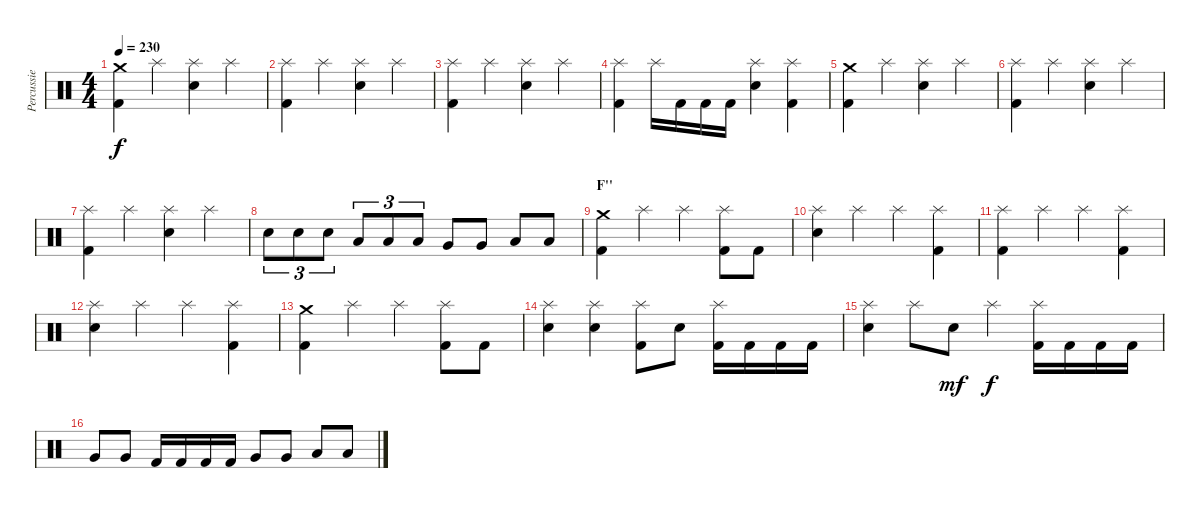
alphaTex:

\track ("Percussie" "Percussie") {instrument percussion}
\staff {score}
\articulation defaults
\ts (4 4)
\tempo 230
\clef neutral
\ks c
("Crash medium (hit)" "Kick (hit) 2").4{dy f} "Splash (hit)".4 ("Splash (hit)" "Electric Snare (hit)").4 "Splash (hit)".4 |
("Splash (hit)" "Kick (hit) 2").4 "Splash (hit)".4 ("Splash (hit)" "Electric Snare (hit)").4 "Splash (hit)".4 |
("Splash (hit)" "Kick (hit) 2").4 "Splash (hit)".4 ("Splash (hit)" "Electric Snare (hit)").4 "Splash (hit)".4 |
("Splash (hit)" "Kick (hit) 2").4 "Splash (hit)".16 "Kick (hit) 2".16 "Kick (hit) 2".16 "Kick (hit) 2".16 ("Splash (hit)" "Electric Snare (hit)").4 ("Splash (hit)" "Kick (hit) 2").4 |
("Crash medium (hit)" "Kick (hit) 2").4 "Splash (hit)".4 ("Splash (hit)" "Electric Snare (hit)").4 "Splash (hit)".4 |
("Splash (hit)" "Kick (hit) 2").4 "Splash (hit)".4 ("Splash (hit)" "Electric Snare (hit)").4 "Splash (hit)".4 |
("Splash (hit)" "Kick (hit) 2").4 "Splash (hit)".4 ("Splash (hit)" "Electric Snare (hit)").4 "Splash (hit)".4 |
"Electric Snare (hit)".8{tu (3 2)} "Electric Snare (hit)".8{tu (3 2)} "Electric Snare (hit)".8{tu (3 2)} "Low Tom (hit)".8{tu (3 2)} "Low Tom (hit)".8{tu (3 2)} "Low Tom (hit)".8{tu (3 2)} "Very Low Tom (hit)".8 "Very Low Tom (hit)".8 "Low Floor Tom (hit)".8 "Low Floor Tom (hit)".8 |
\section ("" "F''")
("Crash medium (hit)" "Kick (hit) 2").4 "Splash (hit)".4 "Splash (hit)".4 ("Splash (hit)" "Kick (hit) 2").8 "Kick (hit) 2".8 |
("Splash (hit)" "Electric Snare (hit)").4 "Splash (hit)".4 "Splash (hit)".4 ("Splash (hit)" "Kick (hit) 2").4 |
("Splash (hit)" "Kick (hit) 2").4 "Splash (hit)".4 "Splash (hit)".4 ("Splash (hit)" "Kick (hit) 2").4 |
("Splash (hit)" "Electric Snare (hit)").4 "Splash (hit)".4 "Splash (hit)".4 ("Splash (hit)" "Kick (hit) 2").4 |
("Crash medium (hit)" "Kick (hit) 2").4 "Splash (hit)".4 "Splash (hit)".4 ("Splash (hit)" "Kick (hit) 2").8 "Kick (hit) 2".8 |
("Splash (hit)" "Electric Snare (hit)").4 ("Splash (hit)" "Electric Snare (hit)").4 ("Splash (hit)" "Kick (hit) 2").8 "Electric Snare (hit)".8 ("Splash (hit)" "Kick (hit) 2").16 "Kick (hit) 2".16 "Kick (hit) 2".16 "Kick (hit) 2".16 |
("Splash (hit)" "Electric Snare (hit)").4 "Splash (hit)".8 "Electric Snare (hit)".8{dy mf} "Splash (hit)".4{dy f} ("Splash (hit)" "Kick (hit) 2").16 "Kick (hit) 2".16 "Kick (hit) 2".16 "Kick (hit) 2".16 |
"Very Low Tom (hit)".8 "Very Low Tom (hit)".8 "Kick (hit) 2".16 "Kick (hit) 2".16 "Kick (hit) 2".16 "Kick (hit) 2".16 "Very Low Tom (hit)".8 "Very Low Tom (hit)".8 "Low Floor Tom (hit)".8 "Low Floor Tom (hit)".8
